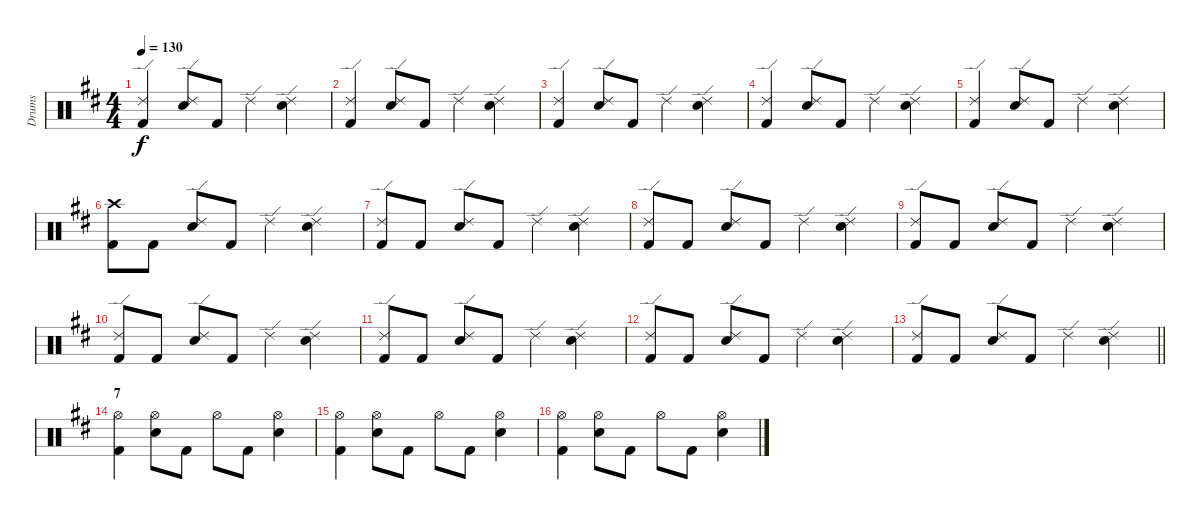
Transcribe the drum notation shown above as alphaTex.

\track ("Drums" "Drums") {instrument percussion}
\staff {score}
\articulation defaults
\ts (4 4)
\tempo 130
\clef neutral
\ks d
("Kick (hit) 2" "Ride (edge) 2").4{dy f} ("Ride (edge) 2" "Electric Snare (hit)").8 "Kick (hit) 2".8 "Ride (edge) 2".4 ("Electric Snare (hit)" "Ride (edge) 2").4 |
("Kick (hit) 2" "Ride (edge) 2").4 ("Ride (edge) 2" "Electric Snare (hit)").8 "Kick (hit) 2".8 "Ride (edge) 2".4 ("Electric Snare (hit)" "Ride (edge) 2").4 |
("Kick (hit) 2" "Ride (edge) 2").4 ("Ride (edge) 2" "Electric Snare (hit)").8 "Kick (hit) 2".8 "Ride (edge) 2".4 ("Electric Snare (hit)" "Ride (edge) 2").4 |
("Kick (hit) 2" "Ride (edge) 2").4 ("Ride (edge) 2" "Electric Snare (hit)").8 "Kick (hit) 2".8 "Ride (edge) 2".4 ("Electric Snare (hit)" "Ride (edge) 2").4 |
("Kick (hit) 2" "Ride (edge) 2").4 ("Ride (edge) 2" "Electric Snare (hit)").8 "Kick (hit) 2".8 "Ride (edge) 2".4 ("Electric Snare (hit)" "Ride (edge) 2").4 |
("Kick (hit) 2" "Crash high (hit)").8 "Kick (hit) 2".8 ("Ride (edge) 2" "Electric Snare (hit)").8 "Kick (hit) 2".8 "Ride (edge) 2".4 ("Electric Snare (hit)" "Ride (edge) 2").4 |
("Kick (hit) 2" "Ride (edge) 2").8 "Kick (hit) 2".8 ("Ride (edge) 2" "Electric Snare (hit)").8 "Kick (hit) 2".8 "Ride (edge) 2".4 ("Electric Snare (hit)" "Ride (edge) 2").4 |
("Kick (hit) 2" "Ride (edge) 2").8 "Kick (hit) 2".8 ("Ride (edge) 2" "Electric Snare (hit)").8 "Kick (hit) 2".8 "Ride (edge) 2".4 ("Electric Snare (hit)" "Ride (edge) 2").4 |
("Kick (hit) 2" "Ride (edge) 2").8 "Kick (hit) 2".8 ("Ride (edge) 2" "Electric Snare (hit)").8 "Kick (hit) 2".8 "Ride (edge) 2".4 ("Electric Snare (hit)" "Ride (edge) 2").4 |
("Kick (hit) 2" "Ride (edge) 2").8 "Kick (hit) 2".8 ("Ride (edge) 2" "Electric Snare (hit)").8 "Kick (hit) 2".8 "Ride (edge) 2".4 ("Electric Snare (hit)" "Ride (edge) 2").4 |
("Kick (hit) 2" "Ride (edge) 2").8 "Kick (hit) 2".8 ("Ride (edge) 2" "Electric Snare (hit)").8 "Kick (hit) 2".8 "Ride (edge) 2".4 ("Electric Snare (hit)" "Ride (edge) 2").4 |
("Kick (hit) 2" "Ride (edge) 2").8 "Kick (hit) 2".8 ("Ride (edge) 2" "Electric Snare (hit)").8 "Kick (hit) 2".8 "Ride (edge) 2".4 ("Electric Snare (hit)" "Ride (edge) 2").4 |
\barLineRight lightlight
("Kick (hit) 2" "Ride (edge) 2").8 "Kick (hit) 2".8 ("Ride (edge) 2" "Electric Snare (hit)").8 "Kick (hit) 2".8 "Ride (edge) 2".4 ("Electric Snare (hit)" "Ride (edge) 2").4 |
\section ("" "7")
("Kick (hit) 2" "Hi-Hat (open)").4 ("Hi-Hat (open)" "Electric Snare (hit)").8 "Kick (hit) 2".8 "Hi-Hat (open)".8 "Kick (hit) 2".8 ("Electric Snare (hit)" "Hi-Hat (open)").4 |
("Kick (hit) 2" "Hi-Hat (open)").4 ("Hi-Hat (open)" "Electric Snare (hit)").8 "Kick (hit) 2".8 "Hi-Hat (open)".8 "Kick (hit) 2".8 ("Electric Snare (hit)" "Hi-Hat (open)").4 |
("Kick (hit) 2" "Hi-Hat (open)").4 ("Hi-Hat (open)" "Electric Snare (hit)").8 "Kick (hit) 2".8 "Hi-Hat (open)".8 "Kick (hit) 2".8 ("Electric Snare (hit)" "Hi-Hat (open)").4
